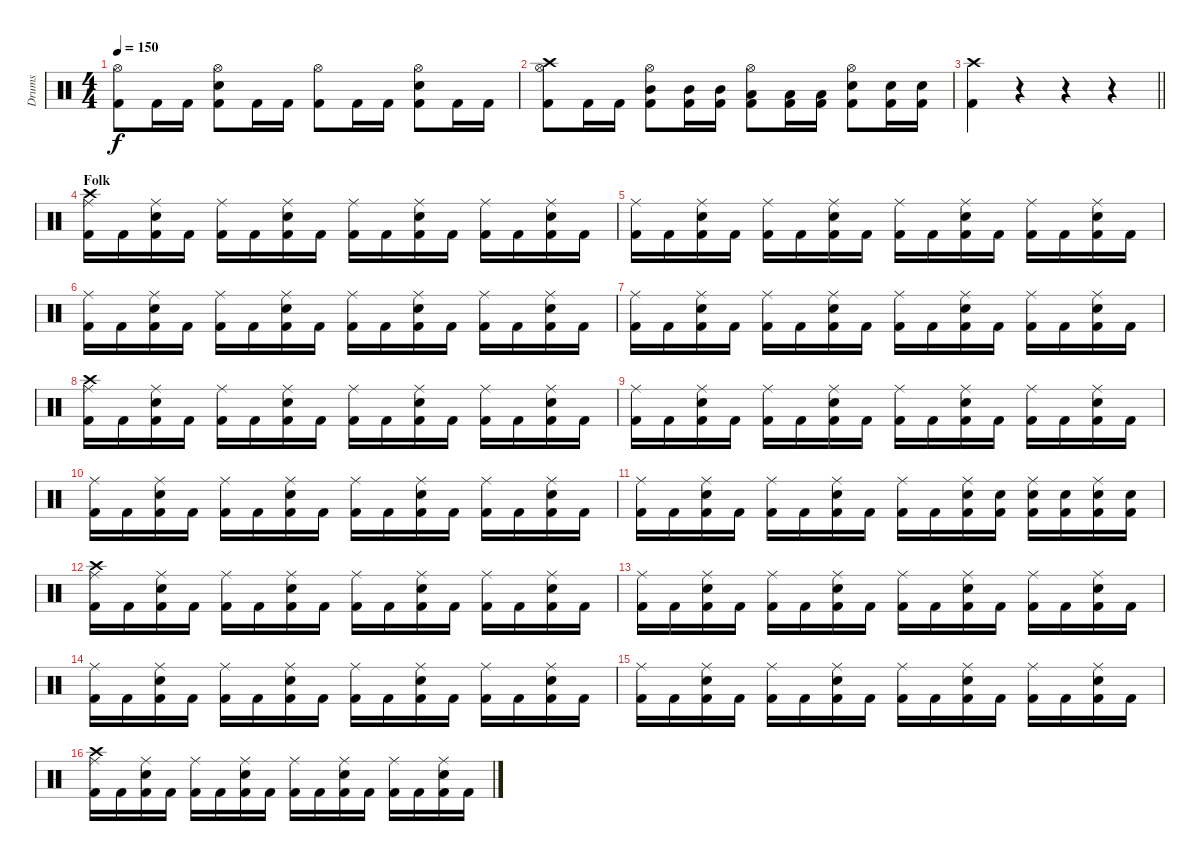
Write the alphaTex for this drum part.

\track ("Drums" "Drums") {instrument percussion}
\staff {score}
\articulation defaults
\ts (4 4)
\tempo 150
\clef neutral
\ks c
("Hi-Hat (open)" "Kick (hit) 2").8{dy f} "Kick (hit) 2".16 "Kick (hit) 2".16 ("Hi-Hat (open)" "Snare (hit) 2" "Kick (hit) 2").8 "Kick (hit) 2".16 "Kick (hit) 2".16 ("Hi-Hat (open)" "Kick (hit) 2").8 "Kick (hit) 2".16 "Kick (hit) 2".16 ("Hi-Hat (open)" "Snare (hit) 2" "Kick (hit) 2").8 "Kick (hit) 2".16 "Kick (hit) 2".16 |
("Crash high (hit)" "Hi-Hat (open)" "Kick (hit) 2").8 "Kick (hit) 2".16 "Kick (hit) 2".16 ("Hi-Hat (open)" "Mid Tom (hit)" "Kick (hit) 2").8 ("Mid Tom (hit)" "Kick (hit) 2").16 ("Mid Tom (hit)" "Kick (hit) 2").16 ("Hi-Hat (open)" "Low Tom (hit)" "Kick (hit) 2").8 ("Low Tom (hit)" "Kick (hit) 2").16 ("Low Tom (hit)" "Kick (hit) 2").16 ("Hi-Hat (open)" "Snare (hit) 2" "Kick (hit) 2").8 ("Snare (hit) 2" "Kick (hit) 2").16 ("Snare (hit) 2" "Kick (hit) 2").16 |
\barLineRight lightlight
("Crash high (hit)" "Kick (hit) 2").4 r.4 r.4 r.4 |
\section ("" "Folk")
("Crash high (hit)" "Ride (middle)" "Kick (hit) 2").16 "Kick (hit) 2".16 ("Ride (middle)" "Snare (hit) 2" "Kick (hit) 2").16 "Kick (hit) 2".16 ("Ride (middle)" "Kick (hit) 2").16 "Kick (hit) 2".16 ("Ride (middle)" "Snare (hit) 2" "Kick (hit) 2").16 "Kick (hit) 2".16 ("Ride (middle)" "Kick (hit) 2").16 "Kick (hit) 2".16 ("Ride (middle)" "Snare (hit) 2" "Kick (hit) 2").16 "Kick (hit) 2".16 ("Ride (middle)" "Kick (hit) 2").16 "Kick (hit) 2".16 ("Ride (middle)" "Snare (hit) 2" "Kick (hit) 2").16 "Kick (hit) 2".16 |
("Ride (middle)" "Kick (hit) 2").16 "Kick (hit) 2".16 ("Ride (middle)" "Snare (hit) 2" "Kick (hit) 2").16 "Kick (hit) 2".16 ("Ride (middle)" "Kick (hit) 2").16 "Kick (hit) 2".16 ("Ride (middle)" "Snare (hit) 2" "Kick (hit) 2").16 "Kick (hit) 2".16 ("Ride (middle)" "Kick (hit) 2").16 "Kick (hit) 2".16 ("Ride (middle)" "Snare (hit) 2" "Kick (hit) 2").16 "Kick (hit) 2".16 ("Ride (middle)" "Kick (hit) 2").16 "Kick (hit) 2".16 ("Ride (middle)" "Snare (hit) 2" "Kick (hit) 2").16 "Kick (hit) 2".16 |
("Ride (middle)" "Kick (hit) 2").16 "Kick (hit) 2".16 ("Ride (middle)" "Snare (hit) 2" "Kick (hit) 2").16 "Kick (hit) 2".16 ("Ride (middle)" "Kick (hit) 2").16 "Kick (hit) 2".16 ("Ride (middle)" "Snare (hit) 2" "Kick (hit) 2").16 "Kick (hit) 2".16 ("Ride (middle)" "Kick (hit) 2").16 "Kick (hit) 2".16 ("Ride (middle)" "Snare (hit) 2" "Kick (hit) 2").16 "Kick (hit) 2".16 ("Ride (middle)" "Kick (hit) 2").16 "Kick (hit) 2".16 ("Ride (middle)" "Snare (hit) 2" "Kick (hit) 2").16 "Kick (hit) 2".16 |
("Ride (middle)" "Kick (hit) 2").16 "Kick (hit) 2".16 ("Ride (middle)" "Snare (hit) 2" "Kick (hit) 2").16 "Kick (hit) 2".16 ("Ride (middle)" "Kick (hit) 2").16 "Kick (hit) 2".16 ("Ride (middle)" "Snare (hit) 2" "Kick (hit) 2").16 "Kick (hit) 2".16 ("Ride (middle)" "Kick (hit) 2").16 "Kick (hit) 2".16 ("Ride (middle)" "Snare (hit) 2" "Kick (hit) 2").16 "Kick (hit) 2".16 ("Ride (middle)" "Kick (hit) 2").16 "Kick (hit) 2".16 ("Ride (middle)" "Snare (hit) 2" "Kick (hit) 2").16 "Kick (hit) 2".16 |
("Crash high (hit)" "Ride (middle)" "Kick (hit) 2").16 "Kick (hit) 2".16 ("Ride (middle)" "Snare (hit) 2" "Kick (hit) 2").16 "Kick (hit) 2".16 ("Ride (middle)" "Kick (hit) 2").16 "Kick (hit) 2".16 ("Ride (middle)" "Snare (hit) 2" "Kick (hit) 2").16 "Kick (hit) 2".16 ("Ride (middle)" "Kick (hit) 2").16 "Kick (hit) 2".16 ("Ride (middle)" "Snare (hit) 2" "Kick (hit) 2").16 "Kick (hit) 2".16 ("Ride (middle)" "Kick (hit) 2").16 "Kick (hit) 2".16 ("Ride (middle)" "Snare (hit) 2" "Kick (hit) 2").16 "Kick (hit) 2".16 |
("Ride (middle)" "Kick (hit) 2").16 "Kick (hit) 2".16 ("Ride (middle)" "Snare (hit) 2" "Kick (hit) 2").16 "Kick (hit) 2".16 ("Ride (middle)" "Kick (hit) 2").16 "Kick (hit) 2".16 ("Ride (middle)" "Snare (hit) 2" "Kick (hit) 2").16 "Kick (hit) 2".16 ("Ride (middle)" "Kick (hit) 2").16 "Kick (hit) 2".16 ("Ride (middle)" "Snare (hit) 2" "Kick (hit) 2").16 "Kick (hit) 2".16 ("Ride (middle)" "Kick (hit) 2").16 "Kick (hit) 2".16 ("Ride (middle)" "Snare (hit) 2" "Kick (hit) 2").16 "Kick (hit) 2".16 |
("Ride (middle)" "Kick (hit) 2").16 "Kick (hit) 2".16 ("Ride (middle)" "Snare (hit) 2" "Kick (hit) 2").16 "Kick (hit) 2".16 ("Ride (middle)" "Kick (hit) 2").16 "Kick (hit) 2".16 ("Ride (middle)" "Snare (hit) 2" "Kick (hit) 2").16 "Kick (hit) 2".16 ("Ride (middle)" "Kick (hit) 2").16 "Kick (hit) 2".16 ("Ride (middle)" "Snare (hit) 2" "Kick (hit) 2").16 "Kick (hit) 2".16 ("Ride (middle)" "Kick (hit) 2").16 "Kick (hit) 2".16 ("Ride (middle)" "Snare (hit) 2" "Kick (hit) 2").16 "Kick (hit) 2".16 |
("Ride (middle)" "Kick (hit) 2").16 "Kick (hit) 2".16 ("Ride (middle)" "Snare (hit) 2" "Kick (hit) 2").16 "Kick (hit) 2".16 ("Ride (middle)" "Kick (hit) 2").16 "Kick (hit) 2".16 ("Ride (middle)" "Snare (hit) 2" "Kick (hit) 2").16 "Kick (hit) 2".16 ("Ride (middle)" "Kick (hit) 2").16 "Kick (hit) 2".16 ("Ride (middle)" "Snare (hit) 2" "Kick (hit) 2").16 ("Snare (hit) 2" "Kick (hit) 2").16 ("Ride (middle)" "Snare (hit) 2" "Kick (hit) 2").16 ("Snare (hit) 2" "Kick (hit) 2").16 ("Ride (middle)" "Snare (hit) 2" "Kick (hit) 2").16 ("Snare (hit) 2" "Kick (hit) 2").16 |
("Crash high (hit)" "Ride (middle)" "Kick (hit) 2").16 "Kick (hit) 2".16 ("Ride (middle)" "Snare (hit) 2" "Kick (hit) 2").16 "Kick (hit) 2".16 ("Ride (middle)" "Kick (hit) 2").16 "Kick (hit) 2".16 ("Ride (middle)" "Snare (hit) 2" "Kick (hit) 2").16 "Kick (hit) 2".16 ("Ride (middle)" "Kick (hit) 2").16 "Kick (hit) 2".16 ("Ride (middle)" "Snare (hit) 2" "Kick (hit) 2").16 "Kick (hit) 2".16 ("Ride (middle)" "Kick (hit) 2").16 "Kick (hit) 2".16 ("Ride (middle)" "Snare (hit) 2" "Kick (hit) 2").16 "Kick (hit) 2".16 |
("Ride (middle)" "Kick (hit) 2").16 "Kick (hit) 2".16 ("Ride (middle)" "Snare (hit) 2" "Kick (hit) 2").16 "Kick (hit) 2".16 ("Ride (middle)" "Kick (hit) 2").16 "Kick (hit) 2".16 ("Ride (middle)" "Snare (hit) 2" "Kick (hit) 2").16 "Kick (hit) 2".16 ("Ride (middle)" "Kick (hit) 2").16 "Kick (hit) 2".16 ("Ride (middle)" "Snare (hit) 2" "Kick (hit) 2").16 "Kick (hit) 2".16 ("Ride (middle)" "Kick (hit) 2").16 "Kick (hit) 2".16 ("Ride (middle)" "Snare (hit) 2" "Kick (hit) 2").16 "Kick (hit) 2".16 |
("Ride (middle)" "Kick (hit) 2").16 "Kick (hit) 2".16 ("Ride (middle)" "Snare (hit) 2" "Kick (hit) 2").16 "Kick (hit) 2".16 ("Ride (middle)" "Kick (hit) 2").16 "Kick (hit) 2".16 ("Ride (middle)" "Snare (hit) 2" "Kick (hit) 2").16 "Kick (hit) 2".16 ("Ride (middle)" "Kick (hit) 2").16 "Kick (hit) 2".16 ("Ride (middle)" "Snare (hit) 2" "Kick (hit) 2").16 "Kick (hit) 2".16 ("Ride (middle)" "Kick (hit) 2").16 "Kick (hit) 2".16 ("Ride (middle)" "Snare (hit) 2" "Kick (hit) 2").16 "Kick (hit) 2".16 |
("Ride (middle)" "Kick (hit) 2").16 "Kick (hit) 2".16 ("Ride (middle)" "Snare (hit) 2" "Kick (hit) 2").16 "Kick (hit) 2".16 ("Ride (middle)" "Kick (hit) 2").16 "Kick (hit) 2".16 ("Ride (middle)" "Snare (hit) 2" "Kick (hit) 2").16 "Kick (hit) 2".16 ("Ride (middle)" "Kick (hit) 2").16 "Kick (hit) 2".16 ("Ride (middle)" "Snare (hit) 2" "Kick (hit) 2").16 "Kick (hit) 2".16 ("Ride (middle)" "Kick (hit) 2").16 "Kick (hit) 2".16 ("Ride (middle)" "Snare (hit) 2" "Kick (hit) 2").16 "Kick (hit) 2".16 |
("Crash high (hit)" "Ride (middle)" "Kick (hit) 2").16 "Kick (hit) 2".16 ("Ride (middle)" "Snare (hit) 2" "Kick (hit) 2").16 "Kick (hit) 2".16 ("Ride (middle)" "Kick (hit) 2").16 "Kick (hit) 2".16 ("Ride (middle)" "Snare (hit) 2" "Kick (hit) 2").16 "Kick (hit) 2".16 ("Ride (middle)" "Kick (hit) 2").16 "Kick (hit) 2".16 ("Ride (middle)" "Snare (hit) 2" "Kick (hit) 2").16 "Kick (hit) 2".16 ("Ride (middle)" "Kick (hit) 2").16 "Kick (hit) 2".16 ("Ride (middle)" "Snare (hit) 2" "Kick (hit) 2").16 "Kick (hit) 2".16
